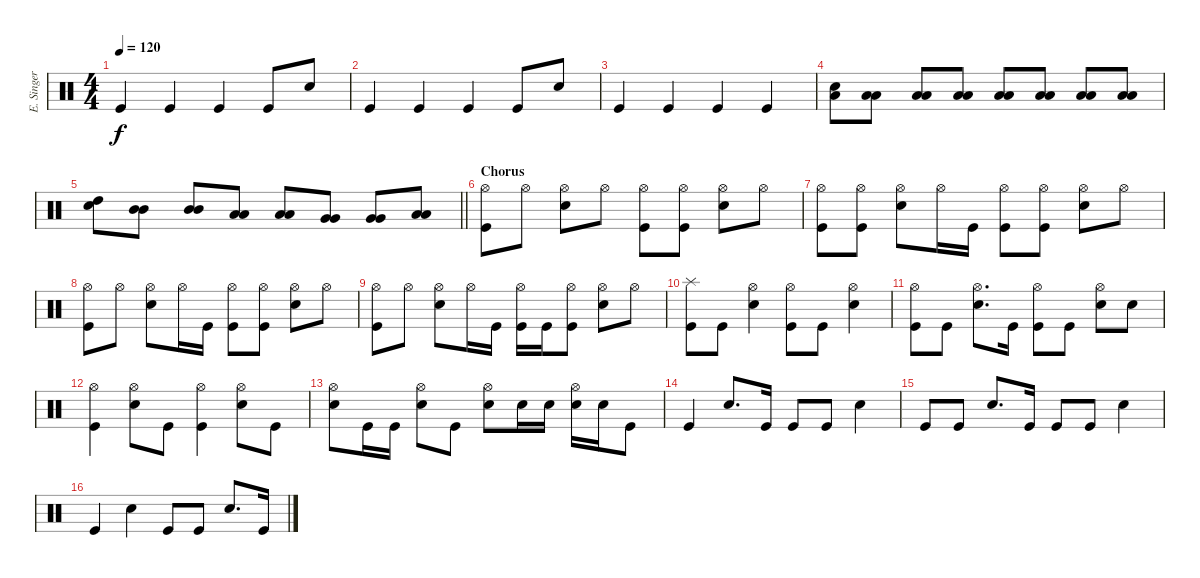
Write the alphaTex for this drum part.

\track ("E. Singer - Drums" "E. Singer ") {instrument percussion}
\staff {score}
\articulation defaults
\ts (4 4)
\tempo 120
\clef neutral
\ks c "Kick (hit)".4{dy f} "Kick (hit)".4 "Kick (hit)".4 "Kick (hit)".8 "Snare (hit) 2".8
|
"Kick (hit)".4 "Kick (hit)".4 "Kick (hit)".4 "Kick (hit)".8 "Snare (hit) 2".8 |
"Kick (hit)".4 "Kick (hit)".4 "Kick (hit)".4 "Kick (hit)".4 |
("Snare (hit) 2" "Low Floor Tom (hit)").8 ("Low Floor Tom (hit)" "Low Floor Tom (hit)").8 ("Low Floor Tom (hit)" "Low Floor Tom (hit)").8 ("Low Floor Tom (hit)" "Low Floor Tom (hit)").8 ("Low Floor Tom (hit)" "Low Floor Tom (hit)").8 ("Low Floor Tom (hit)" "Low Floor Tom (hit)").8 ("Low Floor Tom (hit)" "Low Floor Tom (hit)").8 ("Low Floor Tom (hit)" "Low Floor Tom (hit)").8 |
\barLineRight lightlight
("Snare (hit) 2" "High Tom (hit)").8 ("Mid Tom (hit)" "Mid Tom (hit)").8 ("Mid Tom (hit)" "Mid Tom (hit)").8 ("Low Tom (hit)" "Low Tom (hit)").8 ("Low Tom (hit)" "Low Tom (hit)").8 ("Very Low Tom (hit)" "Very Low Tom (hit)").8 ("Very Low Tom (hit)" "Very Low Tom (hit)").8 ("Low Floor Tom (hit)" "Low Floor Tom (hit)").8 |
\section ("" "Chorus")
("Kick (hit)" "Hi-Hat (open)").8 "Hi-Hat (open)".8 ("Snare (hit) 2" "Hi-Hat (open)").8 "Hi-Hat (open)".8 ("Kick (hit)" "Hi-Hat (open)").8 ("Kick (hit)" "Hi-Hat (open)").8 ("Snare (hit) 2" "Hi-Hat (open)").8 "Hi-Hat (open)".8 |
("Kick (hit)" "Hi-Hat (open)").8 ("Kick (hit)" "Hi-Hat (open)").8 ("Snare (hit) 2" "Hi-Hat (open)").8 "Hi-Hat (open)".16 "Kick (hit)".16 ("Kick (hit)" "Hi-Hat (open)").8 ("Kick (hit)" "Hi-Hat (open)").8 ("Snare (hit) 2" "Hi-Hat (open)").8 "Hi-Hat (open)".8 |
("Kick (hit)" "Hi-Hat (open)").8 "Hi-Hat (open)".8 ("Snare (hit) 2" "Hi-Hat (open)").8 "Hi-Hat (open)".16 "Kick (hit)".16 ("Kick (hit)" "Hi-Hat (open)").8 ("Kick (hit)" "Hi-Hat (open)").8 ("Snare (hit) 2" "Hi-Hat (open)").8 "Hi-Hat (open)".8 |
("Kick (hit)" "Hi-Hat (open)").8 "Hi-Hat (open)".8 ("Snare (hit) 2" "Hi-Hat (open)").8 "Hi-Hat (open)".16 "Kick (hit)".16 ("Kick (hit)" "Hi-Hat (open)").16 "Kick (hit)".16 ("Kick (hit)" "Hi-Hat (open)").8 ("Snare (hit) 2" "Hi-Hat (open)").8 "Hi-Hat (open)".8 |
("Kick (hit)" "Splash (hit)").8 "Kick (hit)".8 ("Snare (hit) 2" "Hi-Hat (open)").4 ("Kick (hit)" "Hi-Hat (open)").8 "Kick (hit)".8 ("Snare (hit) 2" "Hi-Hat (open)").4 |
("Kick (hit)" "Hi-Hat (open)").8 "Kick (hit)".8 ("Snare (hit) 2" "Hi-Hat (open)").8{d} "Kick (hit)".16 ("Kick (hit)" "Hi-Hat (open)").8 "Kick (hit)".8 ("Snare (hit) 2" "Hi-Hat (open)").8 "Snare (hit) 2".8 |
("Kick (hit)" "Hi-Hat (open)").4 ("Snare (hit) 2" "Hi-Hat (open)").8 "Kick (hit)".8 ("Kick (hit)" "Hi-Hat (open)").4 ("Snare (hit) 2" "Hi-Hat (open)").8 "Kick (hit)".8 |
("Snare (hit) 2" "Hi-Hat (open)").8 "Kick (hit)".16 "Kick (hit)".16 ("Snare (hit) 2" "Hi-Hat (open)").8 "Kick (hit)".8 ("Snare (hit) 2" "Hi-Hat (open)").8 "Snare (hit) 2".16 "Snare (hit) 2".16 ("Snare (hit) 2" "Hi-Hat (open)").16 "Snare (hit) 2".16 "Kick (hit)".8 |
"Kick (hit)".4 "Snare (hit) 2".8{d} "Kick (hit)".16 "Kick (hit)".8 "Kick (hit)".8 "Snare (hit) 2".4 |
"Kick (hit)".8 "Kick (hit)".8 "Snare (hit) 2".8{d} "Kick (hit)".16 "Kick (hit)".8 "Kick (hit)".8 "Snare (hit) 2".4 |
"Kick (hit)".4 "Snare (hit) 2".4 "Kick (hit)".8 "Kick (hit)".8 "Snare (hit) 2".8{d} "Kick (hit)".16
